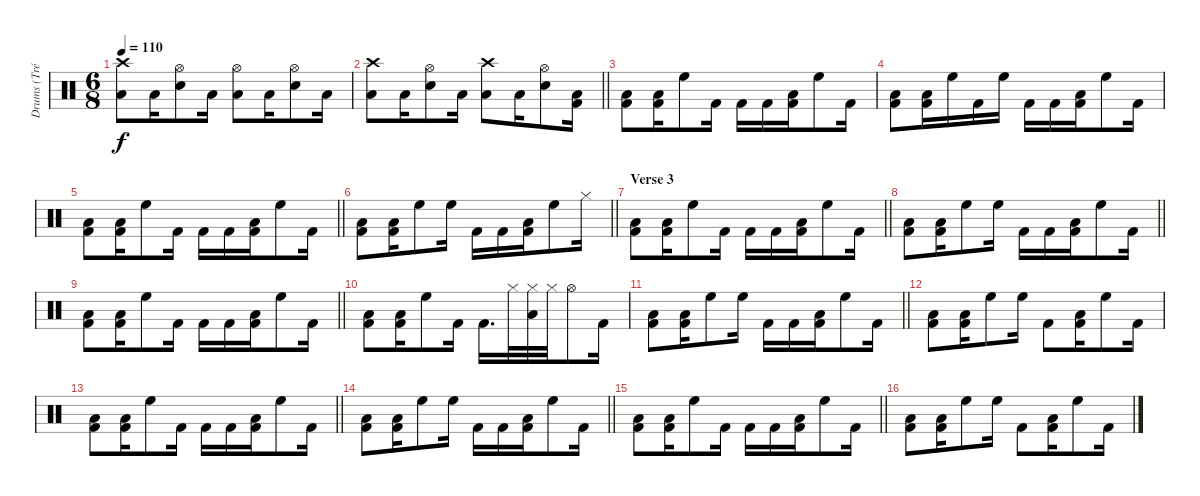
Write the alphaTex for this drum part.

\track ("Drums (Tré Cool)" "Drums (Tré") {instrument percussion}
\staff {score}
\articulation defaults
\ts (6 8)
\tempo 110
\clef neutral
\ks c
("Crash high (hit)" "Low Floor Tom (hit)").8{dy f} "Low Floor Tom (hit)".16 ("Hi-Hat (open)" "Electric Snare (hit)").8 "Low Floor Tom (hit)".16 ("Hi-Hat (open)" "Low Floor Tom (hit)").8 "Low Floor Tom (hit)".16 ("Hi-Hat (open)" "Electric Snare (hit)").8 "Low Floor Tom (hit)".16 |
\barLineRight lightlight
("Crash high (hit)" "Low Floor Tom (hit)").8 "Low Floor Tom (hit)".16 ("Hi-Hat (open)" "Electric Snare (hit)").8 "Low Floor Tom (hit)".16 ("Crash high (hit)" "Low Floor Tom (hit)").8 "Low Floor Tom (hit)".16 ("Hi-Hat (open)" "Electric Snare (hit)").8 ("Kick (hit) 2" "Low Floor Tom (hit)").16 |
("Kick (hit) 2" "Low Floor Tom (hit)").8 ("Kick (hit) 2" "Low Floor Tom (hit)").16 "High Floor Tom (hit)".8 "Kick (hit) 2".16 "Kick (hit) 2".16 "Kick (hit) 2".16 ("Kick (hit) 2" "Low Floor Tom (hit)").16 "High Floor Tom (hit)".8 "Kick (hit) 2".16 |
("Kick (hit) 2" "Low Floor Tom (hit)").8 ("Kick (hit) 2" "Low Floor Tom (hit)").16 "High Floor Tom (hit)".16 "Kick (hit) 2".16 "High Floor Tom (hit)".16 "Kick (hit) 2".16 "Kick (hit) 2".16 ("Kick (hit) 2" "Low Floor Tom (hit)").16 "High Floor Tom (hit)".8 "Kick (hit) 2".16 |
\barLineRight lightlight
("Kick (hit) 2" "Low Floor Tom (hit)").8 ("Kick (hit) 2" "Low Floor Tom (hit)").16 "High Floor Tom (hit)".8 "Kick (hit) 2".16 "Kick (hit) 2".16 "Kick (hit) 2".16 ("Kick (hit) 2" "Low Floor Tom (hit)").16 "High Floor Tom (hit)".8 "Kick (hit) 2".16 |
\barLineRight lightlight
("Kick (hit) 2" "Low Floor Tom (hit)").8 ("Kick (hit) 2" "Low Floor Tom (hit)").16 "High Floor Tom (hit)".8 "High Floor Tom (hit)".16 "Kick (hit) 2".16 "Kick (hit) 2".16 ("Kick (hit) 2" "Low Floor Tom (hit)").16 "High Floor Tom (hit)".8 "Hi-Hat (closed)".16 |
\section ("" "Verse 3")
\barLineRight lightlight
("Kick (hit) 2" "Low Floor Tom (hit)").8 ("Kick (hit) 2" "Low Floor Tom (hit)").16 "High Floor Tom (hit)".8 "Kick (hit) 2".16 "Kick (hit) 2".16 "Kick (hit) 2".16 ("Kick (hit) 2" "Low Floor Tom (hit)").16 "High Floor Tom (hit)".8 "Kick (hit) 2".16 |
\barLineRight lightlight
("Kick (hit) 2" "Low Floor Tom (hit)").8 ("Kick (hit) 2" "Low Floor Tom (hit)").16 "High Floor Tom (hit)".8 "High Floor Tom (hit)".16 "Kick (hit) 2".16 "Kick (hit) 2".16 ("Kick (hit) 2" "Low Floor Tom (hit)").16 "High Floor Tom (hit)".8 "Kick (hit) 2".16 |
\barLineRight lightlight
("Kick (hit) 2" "Low Floor Tom (hit)").8 ("Kick (hit) 2" "Low Floor Tom (hit)").16 "High Floor Tom (hit)".8 "Kick (hit) 2".16 "Kick (hit) 2".16 "Kick (hit) 2".16 ("Kick (hit) 2" "Low Floor Tom (hit)").16 "High Floor Tom (hit)".8 "Kick (hit) 2".16 |
("Kick (hit) 2" "Low Floor Tom (hit)").8 ("Kick (hit) 2" "Low Floor Tom (hit)").16 "High Floor Tom (hit)".8 "Kick (hit) 2".16 "Kick (hit) 2".16{d} "Hi-Hat (closed)".32 ("Hi-Hat (closed)" "Low Floor Tom (hit)").32 "Hi-Hat (closed)".32 "Hi-Hat (open)".8 "Kick (hit) 2".16 |
\barLineRight lightlight
("Kick (hit) 2" "Low Floor Tom (hit)").8 ("Kick (hit) 2" "Low Floor Tom (hit)").16 "High Floor Tom (hit)".8 "High Floor Tom (hit)".16 "Kick (hit) 2".16 "Kick (hit) 2".16 ("Kick (hit) 2" "Low Floor Tom (hit)").16 "High Floor Tom (hit)".8 "Kick (hit) 2".16 |
("Kick (hit) 2" "Low Floor Tom (hit)").8 ("Kick (hit) 2" "Low Floor Tom (hit)").16 "High Floor Tom (hit)".8 "High Floor Tom (hit)".16 "Kick (hit) 2".8 ("Kick (hit) 2" "Low Floor Tom (hit)").16 "High Floor Tom (hit)".8 "Kick (hit) 2".16 |
\barLineRight lightlight
("Kick (hit) 2" "Low Floor Tom (hit)").8 ("Kick (hit) 2" "Low Floor Tom (hit)").16 "High Floor Tom (hit)".8 "Kick (hit) 2".16 "Kick (hit) 2".16 "Kick (hit) 2".16 ("Kick (hit) 2" "Low Floor Tom (hit)").16 "High Floor Tom (hit)".8 "Kick (hit) 2".16 |
\barLineRight lightlight
("Kick (hit) 2" "Low Floor Tom (hit)").8 ("Kick (hit) 2" "Low Floor Tom (hit)").16 "High Floor Tom (hit)".8 "High Floor Tom (hit)".16 "Kick (hit) 2".16 "Kick (hit) 2".16 ("Kick (hit) 2" "Low Floor Tom (hit)").16 "High Floor Tom (hit)".8 "Kick (hit) 2".16 |
\barLineRight lightlight
("Kick (hit) 2" "Low Floor Tom (hit)").8 ("Kick (hit) 2" "Low Floor Tom (hit)").16 "High Floor Tom (hit)".8 "Kick (hit) 2".16 "Kick (hit) 2".16 "Kick (hit) 2".16 ("Kick (hit) 2" "Low Floor Tom (hit)").16 "High Floor Tom (hit)".8 "Kick (hit) 2".16 |
("Kick (hit) 2" "Low Floor Tom (hit)").8 ("Kick (hit) 2" "Low Floor Tom (hit)").16 "High Floor Tom (hit)".8 "High Floor Tom (hit)".16 "Kick (hit) 2".8 ("Kick (hit) 2" "Low Floor Tom (hit)").16 "High Floor Tom (hit)".8 "Kick (hit) 2".16
